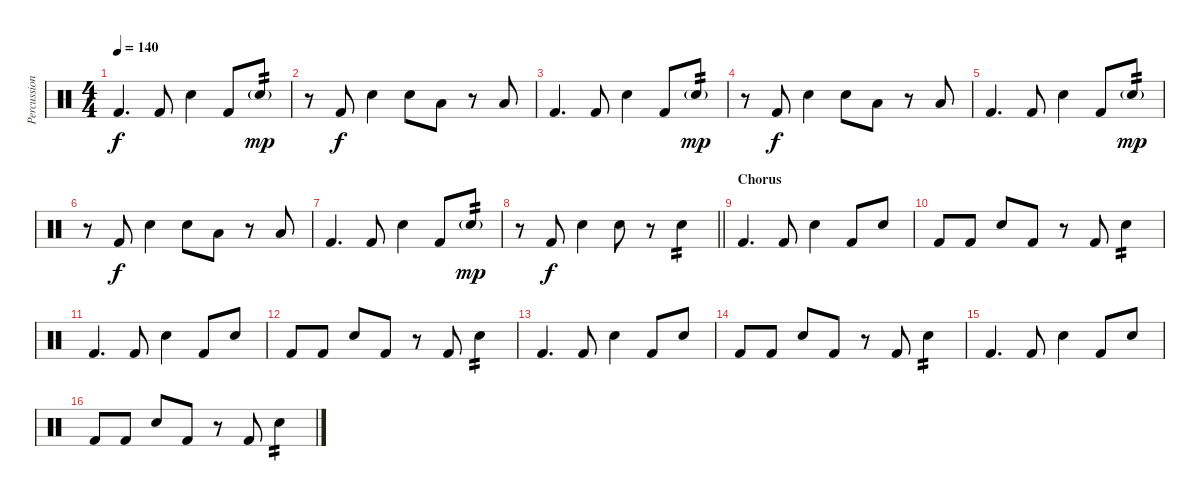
\track ("Percussion" "Percussion") {instrument percussion}
\staff {score}
\articulation defaults
\ts (4 4)
\tempo 140
\clef neutral
\ks c "Kick (hit) 2".4{d dy f} "Kick (hit) 2".8 "Electric Snare (hit)".4 "Kick (hit) 2".8 "Electric Snare (hit)"{g}.8{tp 2 dy mp}
|
r.8 "Kick (hit) 2".8{dy f} "Electric Snare (hit)".4 "Electric Snare (hit)".8 "Low Tom (hit)".8 r.8 "Low Floor Tom (hit)".8 |
"Kick (hit) 2".4{d} "Kick (hit) 2".8 "Electric Snare (hit)".4 "Kick (hit) 2".8 "Electric Snare (hit)"{g}.8{tp 2 dy mp} |
r.8 "Kick (hit) 2".8{dy f} "Electric Snare (hit)".4 "Electric Snare (hit)".8 "Low Tom (hit)".8 r.8 "Low Floor Tom (hit)".8 |
"Kick (hit) 2".4{d} "Kick (hit) 2".8 "Electric Snare (hit)".4 "Kick (hit) 2".8 "Electric Snare (hit)"{g}.8{tp 2 dy mp} |
r.8 "Kick (hit) 2".8{dy f} "Electric Snare (hit)".4 "Electric Snare (hit)".8 "Low Tom (hit)".8 r.8 "Low Floor Tom (hit)".8 |
"Kick (hit) 2".4{d} "Kick (hit) 2".8 "Electric Snare (hit)".4 "Kick (hit) 2".8 "Electric Snare (hit)"{g}.8{tp 2 dy mp} |
\barLineRight lightlight
r.8 "Kick (hit) 2".8{dy f} "Electric Snare (hit)".4 "Electric Snare (hit)".8 r.8 "Electric Snare (hit)".4{tp 2} |
\section ("" "Chorus")
"Kick (hit) 2".4{d} "Kick (hit) 2".8 "Electric Snare (hit)".4 "Kick (hit) 2".8 "Electric Snare (hit)".8 |
"Kick (hit) 2".8 "Kick (hit) 2".8 "Electric Snare (hit)".8 "Kick (hit) 2".8 r.8 "Kick (hit) 2".8 "Electric Snare (hit)".4{tp 2} |
"Kick (hit) 2".4{d} "Kick (hit) 2".8 "Electric Snare (hit)".4 "Kick (hit) 2".8 "Electric Snare (hit)".8 |
"Kick (hit) 2".8 "Kick (hit) 2".8 "Electric Snare (hit)".8 "Kick (hit) 2".8 r.8 "Kick (hit) 2".8 "Electric Snare (hit)".4{tp 2} |
"Kick (hit) 2".4{d} "Kick (hit) 2".8 "Electric Snare (hit)".4 "Kick (hit) 2".8 "Electric Snare (hit)".8 |
"Kick (hit) 2".8 "Kick (hit) 2".8 "Electric Snare (hit)".8 "Kick (hit) 2".8 r.8 "Kick (hit) 2".8 "Electric Snare (hit)".4{tp 2} |
"Kick (hit) 2".4{d} "Kick (hit) 2".8 "Electric Snare (hit)".4 "Kick (hit) 2".8 "Electric Snare (hit)".8 |
"Kick (hit) 2".8 "Kick (hit) 2".8 "Electric Snare (hit)".8 "Kick (hit) 2".8 r.8 "Kick (hit) 2".8 "Electric Snare (hit)".4{tp 2}
